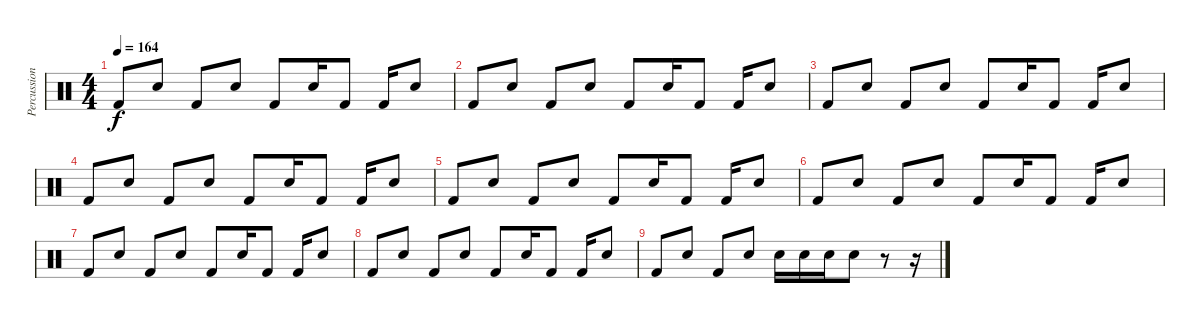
\track ("Percussion" "Percussion") {instrument percussion}
\staff {score}
\articulation defaults
\ts (4 4)
\tempo 164
\clef neutral
\ks c "Kick (hit) 2".8{dy f} "Snare (hit) 2".8 "Kick (hit) 2".8 "Snare (hit) 2".8 "Kick (hit) 2".8 "Snare (hit) 2".16 "Kick (hit) 2".8 "Kick (hit) 2".16 "Snare (hit) 2".8
|
"Kick (hit) 2".8 "Snare (hit) 2".8 "Kick (hit) 2".8 "Snare (hit) 2".8 "Kick (hit) 2".8 "Snare (hit) 2".16 "Kick (hit) 2".8 "Kick (hit) 2".16 "Snare (hit) 2".8 |
"Kick (hit) 2".8 "Snare (hit) 2".8 "Kick (hit) 2".8 "Snare (hit) 2".8 "Kick (hit) 2".8 "Snare (hit) 2".16 "Kick (hit) 2".8 "Kick (hit) 2".16 "Snare (hit) 2".8 |
"Kick (hit) 2".8 "Snare (hit) 2".8 "Kick (hit) 2".8 "Snare (hit) 2".8 "Kick (hit) 2".8 "Snare (hit) 2".16 "Kick (hit) 2".8 "Kick (hit) 2".16 "Snare (hit) 2".8 |
"Kick (hit) 2".8 "Snare (hit) 2".8 "Kick (hit) 2".8 "Snare (hit) 2".8 "Kick (hit) 2".8 "Snare (hit) 2".16 "Kick (hit) 2".8 "Kick (hit) 2".16 "Snare (hit) 2".8 |
"Kick (hit) 2".8 "Snare (hit) 2".8 "Kick (hit) 2".8 "Snare (hit) 2".8 "Kick (hit) 2".8 "Snare (hit) 2".16 "Kick (hit) 2".8 "Kick (hit) 2".16 "Snare (hit) 2".8 |
"Kick (hit) 2".8 "Snare (hit) 2".8 "Kick (hit) 2".8 "Snare (hit) 2".8 "Kick (hit) 2".8 "Snare (hit) 2".16 "Kick (hit) 2".8 "Kick (hit) 2".16 "Snare (hit) 2".8 |
"Kick (hit) 2".8 "Snare (hit) 2".8 "Kick (hit) 2".8 "Snare (hit) 2".8 "Kick (hit) 2".8 "Snare (hit) 2".16 "Kick (hit) 2".8 "Kick (hit) 2".16 "Snare (hit) 2".8 |
"Kick (hit) 2".8 "Snare (hit) 2".8 "Kick (hit) 2".8 "Snare (hit) 2".8 "Snare (hit) 2".16 "Snare (hit) 2".16 "Snare (hit) 2".16 "Snare (hit) 2".8 r.8 r.16
